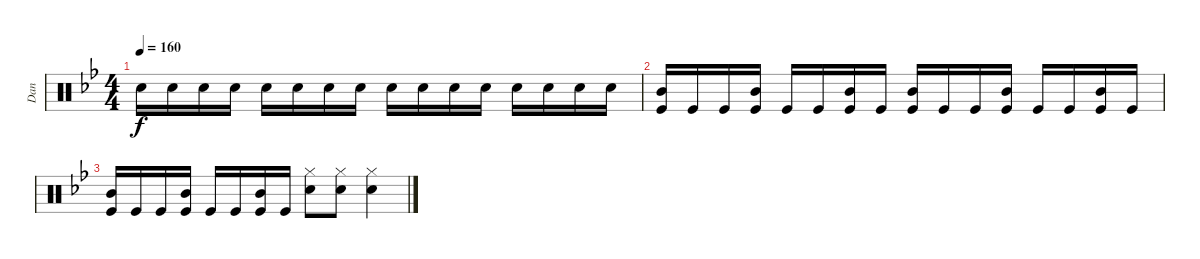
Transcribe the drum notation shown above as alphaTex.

\track ("Dan" "Dan") {instrument percussion}
\staff {score}
\articulation defaults
\ts (4 4)
\tempo 160
\clef neutral
\ks bb "Snare (hit) 2".16{dy f} "Snare (hit) 2".16 "Snare (hit) 2".16 "Snare (hit) 2".16 "Snare (hit) 2".16 "Snare (hit) 2".16 "Snare (hit) 2".16 "Snare (hit) 2".16 "Snare (hit) 2".16 "Snare (hit) 2".16 "Snare (hit) 2".16 "Snare (hit) 2".16 "Snare (hit) 2".16 "Snare (hit) 2".16 "Snare (hit) 2".16 "Snare (hit) 2".16
|
("Mid Tom (hit)" "Kick (hit)").16 "Kick (hit)".16 "Kick (hit)".16 ("Mid Tom (hit)" "Kick (hit)").16 "Kick (hit)".16 "Kick (hit)".16 ("Mid Tom (hit)" "Kick (hit)").16 "Kick (hit)".16 ("Mid Tom (hit)" "Kick (hit)").16 "Kick (hit)".16 "Kick (hit)".16 ("Mid Tom (hit)" "Kick (hit)").16 "Kick (hit)".16 "Kick (hit)".16 ("Mid Tom (hit)" "Kick (hit)").16 "Kick (hit)".16 |
("Mid Tom (hit)" "Kick (hit)").16 "Kick (hit)".16 "Kick (hit)".16 ("Mid Tom (hit)" "Kick (hit)").16 "Kick (hit)".16 "Kick (hit)".16 ("Mid Tom (hit)" "Kick (hit)").16 "Kick (hit)".16 ("Hi-Hat (closed)" "Snare (hit) 2").8 ("Hi-Hat (closed)" "Snare (hit) 2").8 ("Hi-Hat (closed)" "Snare (hit) 2").4
